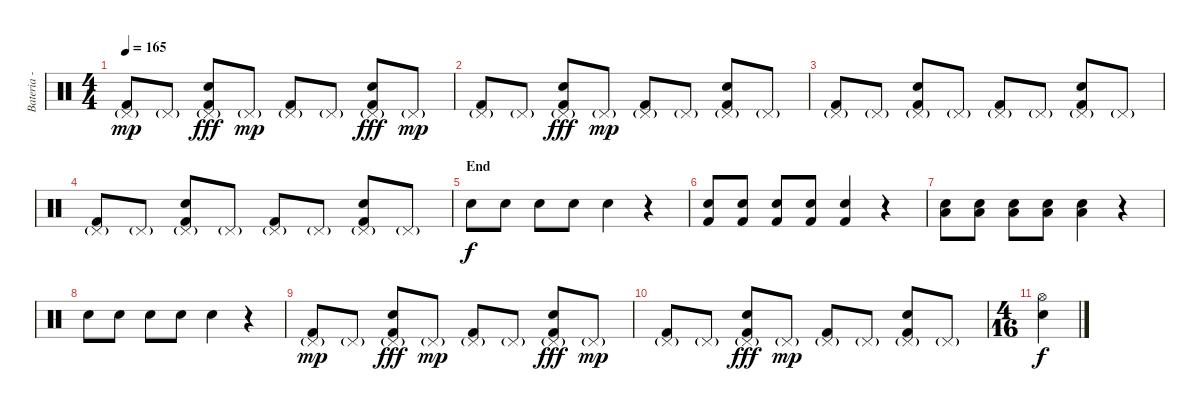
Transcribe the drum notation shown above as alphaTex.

\track ("Bateria - Larzon" "Bateria - ") {instrument percussion}
\staff {score}
\articulation defaults
\ts (4 4)
\tempo 165
\clef neutral
\ks c
("Kick (hit) 2" "Pedal Hi-Hat (hit)"{g}).8{dy mp} "Pedal Hi-Hat (hit)"{g}.8 ("Pedal Hi-Hat (hit)"{g} "Electric Snare (hit)" "Kick (hit) 2").8{dy fff} "Pedal Hi-Hat (hit)"{g}.8{dy mp} ("Kick (hit) 2" "Pedal Hi-Hat (hit)"{g}).8 "Pedal Hi-Hat (hit)"{g}.8 ("Pedal Hi-Hat (hit)"{g} "Electric Snare (hit)" "Kick (hit) 2").8{dy fff} "Pedal Hi-Hat (hit)"{g}.8{dy mp} |
("Kick (hit) 2" "Pedal Hi-Hat (hit)"{g}).8 "Pedal Hi-Hat (hit)"{g}.8 ("Pedal Hi-Hat (hit)"{g} "Electric Snare (hit)" "Kick (hit) 2").8{dy fff} "Pedal Hi-Hat (hit)"{g}.8{dy mp} ("Kick (hit) 2" "Pedal Hi-Hat (hit)"{g}).8 "Pedal Hi-Hat (hit)"{g}.8 ("Pedal Hi-Hat (hit)"{g} "Electric Snare (hit)" "Kick (hit) 2").8 "Pedal Hi-Hat (hit)"{g}.8 |
("Kick (hit) 2" "Pedal Hi-Hat (hit)"{g}).8 "Pedal Hi-Hat (hit)"{g}.8 ("Pedal Hi-Hat (hit)"{g} "Electric Snare (hit)" "Kick (hit) 2").8 "Pedal Hi-Hat (hit)"{g}.8 ("Kick (hit) 2" "Pedal Hi-Hat (hit)"{g}).8 "Pedal Hi-Hat (hit)"{g}.8 ("Pedal Hi-Hat (hit)"{g} "Electric Snare (hit)" "Kick (hit) 2").8 "Pedal Hi-Hat (hit)"{g}.8 |
("Kick (hit) 2" "Pedal Hi-Hat (hit)"{g}).8 "Pedal Hi-Hat (hit)"{g}.8 ("Pedal Hi-Hat (hit)"{g} "Electric Snare (hit)" "Kick (hit) 2").8 "Pedal Hi-Hat (hit)"{g}.8 ("Kick (hit) 2" "Pedal Hi-Hat (hit)"{g}).8 "Pedal Hi-Hat (hit)"{g}.8 ("Pedal Hi-Hat (hit)"{g} "Electric Snare (hit)" "Kick (hit) 2").8 "Pedal Hi-Hat (hit)"{g}.8 |
\section ("" "End")
"Snare (hit) 2".8{dy f} "Snare (hit) 2".8 "Snare (hit) 2".8 "Snare (hit) 2".8 "Snare (hit) 2".4 r.4 |
("Electric Snare (hit)" "Kick (hit) 2").8 ("Electric Snare (hit)" "Kick (hit) 2").8 ("Electric Snare (hit)" "Kick (hit) 2").8 ("Electric Snare (hit)" "Kick (hit) 2").8 ("Electric Snare (hit)" "Kick (hit) 2").4 r.4 |
("Snare (hit) 2" "Low Tom (hit)").8 ("Snare (hit) 2" "Low Tom (hit)").8 ("Snare (hit) 2" "Low Tom (hit)").8 ("Snare (hit) 2" "Low Tom (hit)").8 ("Snare (hit) 2" "Low Tom (hit)").4 r.4 |
"Snare (hit) 2".8 "Snare (hit) 2".8 "Snare (hit) 2".8 "Snare (hit) 2".8 "Snare (hit) 2".4 r.4 |
("Kick (hit) 2" "Pedal Hi-Hat (hit)"{g}).8{dy mp} "Pedal Hi-Hat (hit)"{g}.8 ("Pedal Hi-Hat (hit)"{g} "Electric Snare (hit)" "Kick (hit) 2").8{dy fff} "Pedal Hi-Hat (hit)"{g}.8{dy mp} ("Kick (hit) 2" "Pedal Hi-Hat (hit)"{g}).8 "Pedal Hi-Hat (hit)"{g}.8 ("Pedal Hi-Hat (hit)"{g} "Electric Snare (hit)" "Kick (hit) 2").8{dy fff} "Pedal Hi-Hat (hit)"{g}.8{dy mp} |
("Kick (hit) 2" "Pedal Hi-Hat (hit)"{g}).8 "Pedal Hi-Hat (hit)"{g}.8 ("Pedal Hi-Hat (hit)"{g} "Electric Snare (hit)" "Kick (hit) 2").8{dy fff} "Pedal Hi-Hat (hit)"{g}.8{dy mp} ("Kick (hit) 2" "Pedal Hi-Hat (hit)"{g}).8 "Pedal Hi-Hat (hit)"{g}.8 ("Pedal Hi-Hat (hit)"{g} "Electric Snare (hit)" "Kick (hit) 2").8 "Pedal Hi-Hat (hit)"{g}.8 |
\ts (4 16)
("Hi-Hat (open)" "Snare (hit) 2").4{dy f}
